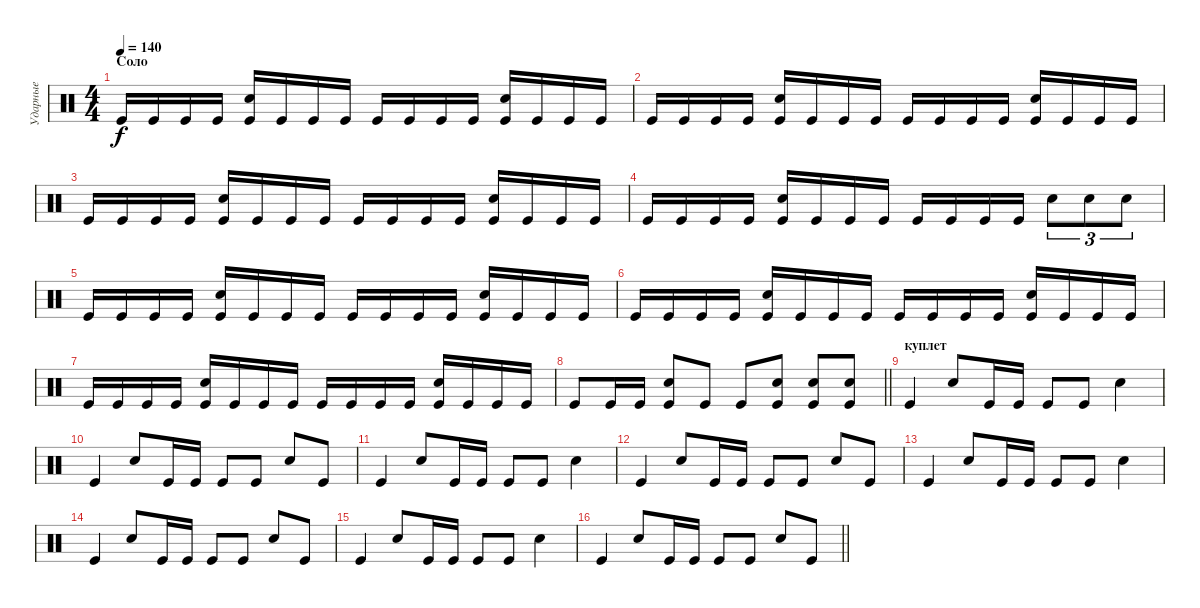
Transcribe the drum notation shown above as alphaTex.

\track ("Ударные" "Ударные") {instrument percussion}
\staff {score}
\articulation defaults
\ts (4 4)
\section ("" "Соло")
\tempo 140
\clef neutral
\ks c "Kick (hit)".16{dy f} "Kick (hit)".16 "Kick (hit)".16 "Kick (hit)".16
("Snare (hit) 2" "Kick (hit)").16 "Kick (hit)".16 "Kick (hit)".16 "Kick (hit)".16 "Kick (hit)".16 "Kick (hit)".16 "Kick (hit)".16 "Kick (hit)".16 ("Kick (hit)" "Snare (hit) 2").16 "Kick (hit)".16 "Kick (hit)".16 "Kick (hit)".16 |
"Kick (hit)".16 "Kick (hit)".16 "Kick (hit)".16 "Kick (hit)".16 ("Snare (hit) 2" "Kick (hit)").16 "Kick (hit)".16 "Kick (hit)".16 "Kick (hit)".16 "Kick (hit)".16 "Kick (hit)".16 "Kick (hit)".16 "Kick (hit)".16 ("Kick (hit)" "Snare (hit) 2").16 "Kick (hit)".16 "Kick (hit)".16 "Kick (hit)".16 |
"Kick (hit)".16 "Kick (hit)".16 "Kick (hit)".16 "Kick (hit)".16 ("Snare (hit) 2" "Kick (hit)").16 "Kick (hit)".16 "Kick (hit)".16 "Kick (hit)".16 "Kick (hit)".16 "Kick (hit)".16 "Kick (hit)".16 "Kick (hit)".16 ("Kick (hit)" "Snare (hit) 2").16 "Kick (hit)".16 "Kick (hit)".16 "Kick (hit)".16 |
"Kick (hit)".16 "Kick (hit)".16 "Kick (hit)".16 "Kick (hit)".16 ("Snare (hit) 2" "Kick (hit)").16 "Kick (hit)".16 "Kick (hit)".16 "Kick (hit)".16 "Kick (hit)".16 "Kick (hit)".16 "Kick (hit)".16 "Kick (hit)".16 "Snare (hit) 2".8{tu (3 2)} "Snare (hit) 2".8{tu (3 2)} "Snare (hit) 2".8{tu (3 2)} |
"Kick (hit)".16 "Kick (hit)".16 "Kick (hit)".16 "Kick (hit)".16 ("Snare (hit) 2" "Kick (hit)").16 "Kick (hit)".16 "Kick (hit)".16 "Kick (hit)".16 "Kick (hit)".16 "Kick (hit)".16 "Kick (hit)".16 "Kick (hit)".16 ("Kick (hit)" "Snare (hit) 2").16 "Kick (hit)".16 "Kick (hit)".16 "Kick (hit)".16 |
"Kick (hit)".16 "Kick (hit)".16 "Kick (hit)".16 "Kick (hit)".16 ("Snare (hit) 2" "Kick (hit)").16 "Kick (hit)".16 "Kick (hit)".16 "Kick (hit)".16 "Kick (hit)".16 "Kick (hit)".16 "Kick (hit)".16 "Kick (hit)".16 ("Kick (hit)" "Snare (hit) 2").16 "Kick (hit)".16 "Kick (hit)".16 "Kick (hit)".16 |
"Kick (hit)".16 "Kick (hit)".16 "Kick (hit)".16 "Kick (hit)".16 ("Snare (hit) 2" "Kick (hit)").16 "Kick (hit)".16 "Kick (hit)".16 "Kick (hit)".16 "Kick (hit)".16 "Kick (hit)".16 "Kick (hit)".16 "Kick (hit)".16 ("Kick (hit)" "Snare (hit) 2").16 "Kick (hit)".16 "Kick (hit)".16 "Kick (hit)".16 |
\barLineRight lightlight "Kick (hit)".8 "Kick (hit)".16 "Kick (hit)".16
("Kick (hit)" "Snare (hit) 2").8 "Kick (hit)".8 "Kick (hit)".8 ("Kick (hit)" "Snare (hit) 2").8 ("Kick (hit)" "Snare (hit) 2").8 ("Kick (hit)" "Snare (hit) 2").8 |
\section ("" "куплет")
"Kick (hit)".4 "Snare (hit) 2".8 "Kick (hit)".16 "Kick (hit)".16 "Kick (hit)".8 "Kick (hit)".8 "Snare (hit) 2".4 |
"Kick (hit)".4 "Snare (hit) 2".8 "Kick (hit)".16 "Kick (hit)".16 "Kick (hit)".8 "Kick (hit)".8 "Snare (hit) 2".8 "Kick (hit)".8 |
"Kick (hit)".4 "Snare (hit) 2".8 "Kick (hit)".16 "Kick (hit)".16 "Kick (hit)".8 "Kick (hit)".8 "Snare (hit) 2".4 |
"Kick (hit)".4 "Snare (hit) 2".8 "Kick (hit)".16 "Kick (hit)".16 "Kick (hit)".8 "Kick (hit)".8 "Snare (hit) 2".8 "Kick (hit)".8 |
"Kick (hit)".4 "Snare (hit) 2".8 "Kick (hit)".16 "Kick (hit)".16 "Kick (hit)".8 "Kick (hit)".8 "Snare (hit) 2".4 |
"Kick (hit)".4 "Snare (hit) 2".8 "Kick (hit)".16 "Kick (hit)".16 "Kick (hit)".8 "Kick (hit)".8 "Snare (hit) 2".8 "Kick (hit)".8 |
"Kick (hit)".4 "Snare (hit) 2".8 "Kick (hit)".16 "Kick (hit)".16 "Kick (hit)".8 "Kick (hit)".8 "Snare (hit) 2".4 |
\barLineRight lightlight "Kick (hit)".4 "Snare (hit) 2".8 "Kick (hit)".16 "Kick (hit)".16 "Kick (hit)".8 "Kick (hit)".8 "Snare (hit) 2".8 "Kick (hit)".8
